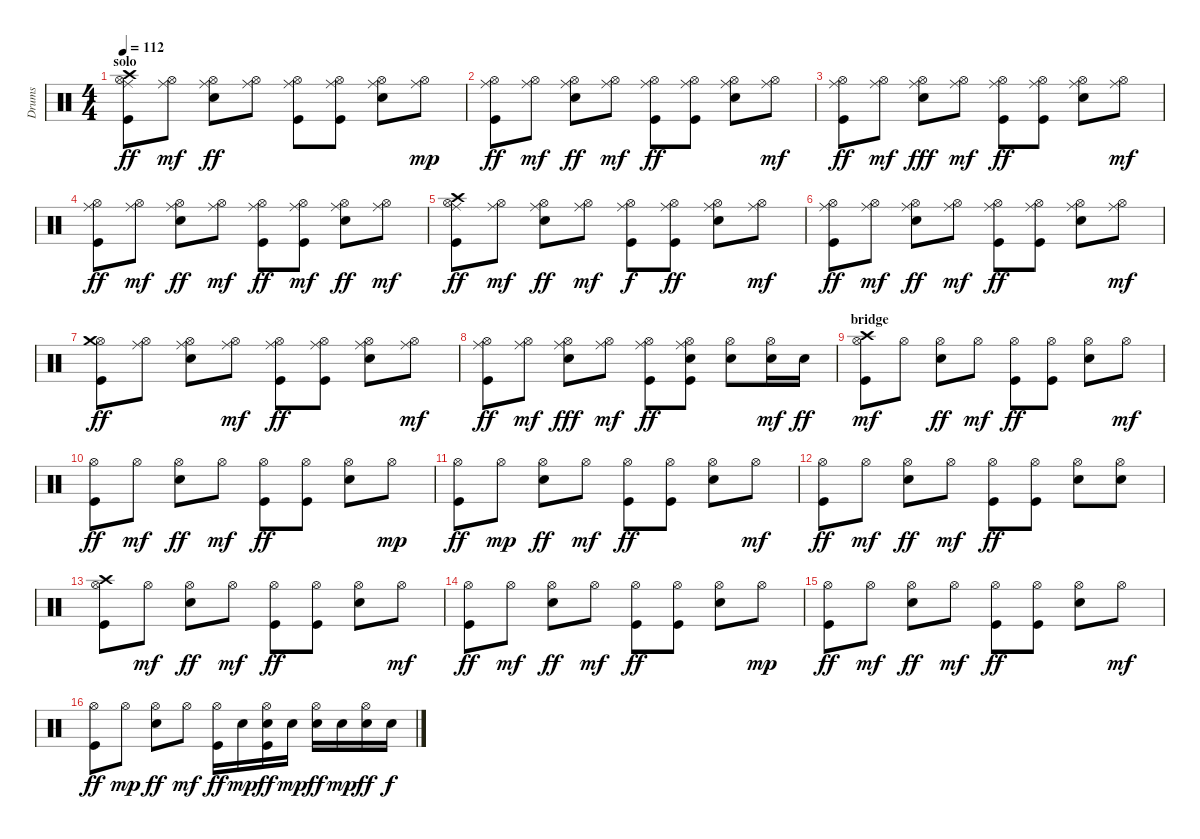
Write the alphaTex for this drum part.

\track ("Drums" "Drums") {instrument percussion}
\staff {score}
\articulation defaults
\ts (4 4)
\section ("" "solo")
\tempo 112
\clef neutral
\ks c
("Kick (hit)" "Hi-Hat (open)" "Crash high (hit)" "Ride (middle)").8{dy ff} ("Hi-Hat (open)" "Ride (middle)").8{dy mf} ("Electric Snare (hit)" "Hi-Hat (open)" "Ride (middle)").8{dy ff} ("Hi-Hat (open)" "Ride (middle)").8 ("Kick (hit)" "Hi-Hat (open)" "Ride (middle)").8 ("Kick (hit)" "Hi-Hat (open)" "Ride (middle)").8 ("Electric Snare (hit)" "Hi-Hat (open)" "Ride (middle)").8 ("Hi-Hat (open)" "Ride (middle)").8{dy mp} |
("Kick (hit)" "Hi-Hat (open)" "Ride (middle)").8{dy ff} ("Hi-Hat (open)" "Ride (middle)").8{dy mf} ("Electric Snare (hit)" "Hi-Hat (open)" "Ride (middle)").8{dy ff} ("Hi-Hat (open)" "Ride (middle)").8{dy mf} ("Kick (hit)" "Hi-Hat (open)" "Ride (middle)").8{dy ff} ("Kick (hit)" "Hi-Hat (open)" "Ride (middle)").8 ("Electric Snare (hit)" "Hi-Hat (open)" "Ride (middle)").8 ("Hi-Hat (open)" "Ride (middle)").8{dy mf} |
("Kick (hit)" "Hi-Hat (open)" "Ride (middle)").8{dy ff} ("Hi-Hat (open)" "Ride (middle)").8{dy mf} ("Electric Snare (hit)" "Hi-Hat (open)" "Ride (middle)").8{dy fff} ("Hi-Hat (open)" "Ride (middle)").8{dy mf} ("Kick (hit)" "Hi-Hat (open)" "Ride (middle)").8{dy ff} ("Kick (hit)" "Hi-Hat (open)" "Ride (middle)").8 ("Electric Snare (hit)" "Hi-Hat (open)" "Ride (middle)").8 ("Hi-Hat (open)" "Ride (middle)").8{dy mf} |
("Kick (hit)" "Hi-Hat (open)" "Ride (middle)").8{dy ff} ("Hi-Hat (open)" "Ride (middle)").8{dy mf} ("Electric Snare (hit)" "Hi-Hat (open)" "Ride (middle)").8{dy ff} ("Hi-Hat (open)" "Ride (middle)").8{dy mf} ("Kick (hit)" "Hi-Hat (open)" "Ride (middle)").8{dy ff} ("Kick (hit)" "Hi-Hat (open)" "Ride (middle)").8{dy mf} ("Electric Snare (hit)" "Hi-Hat (open)" "Ride (middle)").8{dy ff} ("Hi-Hat (open)" "Ride (middle)").8{dy mf} |
("Kick (hit)" "Hi-Hat (open)" "Crash high (hit)" "Ride (middle)").8{dy ff} ("Hi-Hat (open)" "Ride (middle)").8{dy mf} ("Electric Snare (hit)" "Hi-Hat (open)" "Ride (middle)").8{dy ff} ("Hi-Hat (open)" "Ride (middle)").8{dy mf} ("Kick (hit)" "Hi-Hat (open)" "Ride (middle)").8{dy f} ("Kick (hit)" "Hi-Hat (open)" "Ride (middle)").8{dy ff} ("Electric Snare (hit)" "Hi-Hat (open)" "Ride (middle)").8 ("Hi-Hat (open)" "Ride (middle)").8{dy mf} |
("Kick (hit)" "Hi-Hat (open)" "Ride (middle)").8{dy ff} ("Hi-Hat (open)" "Ride (middle)").8{dy mf} ("Electric Snare (hit)" "Hi-Hat (open)" "Ride (middle)").8{dy ff} ("Hi-Hat (open)" "Ride (middle)").8{dy mf} ("Kick (hit)" "Hi-Hat (open)" "Ride (middle)").8{dy ff} ("Kick (hit)" "Hi-Hat (open)" "Ride (middle)").8 ("Electric Snare (hit)" "Hi-Hat (open)" "Ride (middle)").8 ("Hi-Hat (open)" "Ride (middle)").8{dy mf} |
("Kick (hit)" "Hi-Hat (open)" "Crash medium (hit)").8{dy ff} ("Hi-Hat (open)" "Ride (middle)").8 ("Electric Snare (hit)" "Hi-Hat (open)" "Ride (middle)").8 ("Hi-Hat (open)" "Ride (middle)").8{dy mf} ("Kick (hit)" "Hi-Hat (open)" "Ride (middle)").8{dy ff} ("Kick (hit)" "Hi-Hat (open)" "Ride (middle)").8 ("Electric Snare (hit)" "Hi-Hat (open)" "Ride (middle)").8 ("Hi-Hat (open)" "Ride (middle)").8{dy mf} |
("Kick (hit)" "Hi-Hat (open)" "Ride (middle)").8{dy ff} ("Hi-Hat (open)" "Ride (middle)").8{dy mf} ("Electric Snare (hit)" "Hi-Hat (open)" "Ride (middle)").8{dy fff} ("Hi-Hat (open)" "Ride (middle)").8{dy mf} ("Kick (hit)" "Hi-Hat (open)" "Ride (middle)").8{dy ff} ("Kick (hit)" "Electric Snare (hit)" "Hi-Hat (open)" "Ride (middle)").8 ("Electric Snare (hit)" "Hi-Hat (open)").8 ("Electric Snare (hit)" "Hi-Hat (open)").16{dy mf} "Electric Snare (hit)".16{dy ff} |
\section ("" "bridge")
("Kick (hit)" "Hi-Hat (open)" "Crash high (hit)").8{dy mf} "Hi-Hat (open)".8 ("Electric Snare (hit)" "Hi-Hat (open)").8{dy ff} "Hi-Hat (open)".8{dy mf} ("Kick (hit)" "Hi-Hat (open)").8{dy ff} ("Kick (hit)" "Hi-Hat (open)").8 ("Electric Snare (hit)" "Hi-Hat (open)").8 "Hi-Hat (open)".8{dy mf} |
("Kick (hit)" "Hi-Hat (open)").8{dy ff} "Hi-Hat (open)".8{dy mf} ("Electric Snare (hit)" "Hi-Hat (open)").8{dy ff} "Hi-Hat (open)".8{dy mf} ("Kick (hit)" "Hi-Hat (open)").8{dy ff} ("Kick (hit)" "Hi-Hat (open)").8 ("Electric Snare (hit)" "Hi-Hat (open)").8 "Hi-Hat (open)".8{dy mp} |
("Kick (hit)" "Hi-Hat (open)").8{dy ff} "Hi-Hat (open)".8{dy mp} ("Electric Snare (hit)" "Hi-Hat (open)").8{dy ff} "Hi-Hat (open)".8{dy mf} ("Kick (hit)" "Hi-Hat (open)").8{dy ff} ("Kick (hit)" "Hi-Hat (open)").8 ("Electric Snare (hit)" "Hi-Hat (open)").8 "Hi-Hat (open)".8{dy mf} |
("Kick (hit)" "Hi-Hat (open)").8{dy ff} "Hi-Hat (open)".8{dy mf} ("Electric Snare (hit)" "Hi-Hat (open)").8{dy ff} "Hi-Hat (open)".8{dy mf} ("Kick (hit)" "Hi-Hat (open)").8{dy ff} ("Kick (hit)" "Hi-Hat (open)").8 ("Electric Snare (hit)" "Hi-Hat (open)").8 ("Electric Snare (hit)" "Hi-Hat (open)").8 |
("Kick (hit)" "Hi-Hat (open)" "Crash high (hit)").8 "Hi-Hat (open)".8{dy mf} ("Electric Snare (hit)" "Hi-Hat (open)").8{dy ff} "Hi-Hat (open)".8{dy mf} ("Kick (hit)" "Hi-Hat (open)").8{dy ff} ("Kick (hit)" "Hi-Hat (open)").8 ("Electric Snare (hit)" "Hi-Hat (open)").8 "Hi-Hat (open)".8{dy mf} |
("Kick (hit)" "Hi-Hat (open)").8{dy ff} "Hi-Hat (open)".8{dy mf} ("Electric Snare (hit)" "Hi-Hat (open)").8{dy ff} "Hi-Hat (open)".8{dy mf} ("Kick (hit)" "Hi-Hat (open)").8{dy ff} ("Kick (hit)" "Hi-Hat (open)").8 ("Electric Snare (hit)" "Hi-Hat (open)").8 "Hi-Hat (open)".8{dy mp} |
("Kick (hit)" "Hi-Hat (open)").8{dy ff} "Hi-Hat (open)".8{dy mf} ("Electric Snare (hit)" "Hi-Hat (open)").8{dy ff} "Hi-Hat (open)".8{dy mf} ("Kick (hit)" "Hi-Hat (open)").8{dy ff} ("Kick (hit)" "Hi-Hat (open)").8 ("Electric Snare (hit)" "Hi-Hat (open)").8 "Hi-Hat (open)".8{dy mf} |
("Kick (hit)" "Hi-Hat (open)").8{dy ff} "Hi-Hat (open)".8{dy mp} ("Electric Snare (hit)" "Hi-Hat (open)").8{dy ff} "Hi-Hat (open)".8{dy mf} ("Kick (hit)" "Hi-Hat (open)").16{dy ff} "Electric Snare (hit)".16{dy mp} ("Kick (hit)" "Electric Snare (hit)" "Hi-Hat (open)").16{dy ff} "Electric Snare (hit)".16{dy mp} ("Electric Snare (hit)" "Hi-Hat (open)").16{dy ff} "Electric Snare (hit)".16{dy mp} ("Electric Snare (hit)" "Hi-Hat (open)").16{dy ff} "Electric Snare (hit)".16{dy f}
